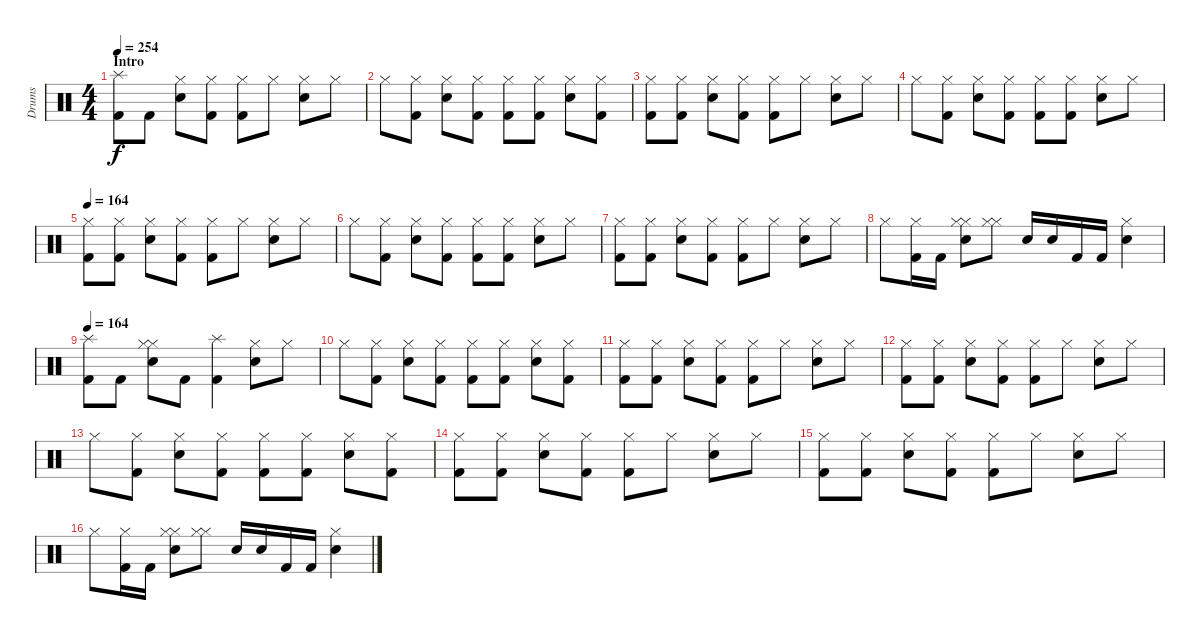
\track ("Drums" "Drums") {instrument percussion}
\staff {score}
\articulation defaults
\ts (4 4)
\section ("" "Intro")
\tempo 254
\tempo 164
\tempo 254
\clef neutral
\ks c
("Splash (hit)" "Kick (hit) 2").8{dy f} "Kick (hit) 2".8 ("Hi-Hat (closed)" "Electric Snare (hit)").8 ("Hi-Hat (closed)" "Kick (hit) 2").8 ("Hi-Hat (closed)" "Kick (hit) 2").8 "Hi-Hat (closed)".8 ("Hi-Hat (closed)" "Electric Snare (hit)").8 "Hi-Hat (closed)".8 |
"Hi-Hat (closed)".8 ("Hi-Hat (closed)" "Kick (hit) 2").8 ("Hi-Hat (closed)" "Electric Snare (hit)").8 ("Hi-Hat (closed)" "Kick (hit) 2").8 ("Hi-Hat (closed)" "Kick (hit) 2").8 ("Hi-Hat (closed)" "Kick (hit) 2").8 ("Hi-Hat (closed)" "Electric Snare (hit)").8 ("Hi-Hat (closed)" "Kick (hit) 2").8 |
("Hi-Hat (closed)" "Kick (hit) 2").8 ("Hi-Hat (closed)" "Kick (hit) 2").8 ("Hi-Hat (closed)" "Electric Snare (hit)").8 ("Hi-Hat (closed)" "Kick (hit) 2").8 ("Hi-Hat (closed)" "Kick (hit) 2").8 "Hi-Hat (closed)".8 ("Hi-Hat (closed)" "Electric Snare (hit)").8 "Hi-Hat (closed)".8 |
"Hi-Hat (closed)".8 ("Hi-Hat (closed)" "Kick (hit) 2").8 ("Hi-Hat (closed)" "Electric Snare (hit)").8 ("Hi-Hat (closed)" "Kick (hit) 2").8 ("Hi-Hat (closed)" "Kick (hit) 2").8 ("Hi-Hat (closed)" "Kick (hit) 2").8 ("Hi-Hat (closed)" "Electric Snare (hit)").8 "Hi-Hat (closed)".8 |
\tempo 164
("Hi-Hat (closed)" "Kick (hit) 2").8 ("Hi-Hat (closed)" "Kick (hit) 2").8 ("Hi-Hat (closed)" "Electric Snare (hit)").8 ("Hi-Hat (closed)" "Kick (hit) 2").8 ("Hi-Hat (closed)" "Kick (hit) 2").8 "Hi-Hat (closed)".8 ("Hi-Hat (closed)" "Electric Snare (hit)").8 "Hi-Hat (closed)".8 |
"Hi-Hat (closed)".8 ("Hi-Hat (closed)" "Kick (hit) 2").8 ("Hi-Hat (closed)" "Electric Snare (hit)").8 ("Hi-Hat (closed)" "Kick (hit) 2").8 ("Hi-Hat (closed)" "Kick (hit) 2").8 ("Hi-Hat (closed)" "Kick (hit) 2").8 ("Hi-Hat (closed)" "Electric Snare (hit)").8 "Hi-Hat (closed)".8 |
("Hi-Hat (closed)" "Kick (hit) 2").8 ("Hi-Hat (closed)" "Kick (hit) 2").8 ("Hi-Hat (closed)" "Electric Snare (hit)").8 ("Hi-Hat (closed)" "Kick (hit) 2").8 ("Hi-Hat (closed)" "Kick (hit) 2").8 "Hi-Hat (closed)".8 ("Hi-Hat (closed)" "Electric Snare (hit)").8 "Hi-Hat (closed)".8 |
"Hi-Hat (closed)".8 ("Hi-Hat (closed)" "Kick (hit) 2").16 "Kick (hit) 2".16 ("Hi-Hat (closed)" "Hi-Hat (closed)" "Electric Snare (hit)").8 ("Hi-Hat (closed)" "Hi-Hat (closed)").8 "Electric Snare (hit)".16 "Electric Snare (hit)".16 "Kick (hit) 2".16 "Kick (hit) 2".16 ("Hi-Hat (closed)" "Electric Snare (hit)").4 |
\tempo 164
("Splash (hit)" "Kick (hit) 2").8 "Kick (hit) 2".8 ("Hi-Hat (closed)" "Hi-Hat (closed)" "Electric Snare (hit)").8 "Kick (hit) 2".8 ("Splash (hit)" "Kick (hit) 2").4 ("Hi-Hat (closed)" "Electric Snare (hit)").8 "Hi-Hat (closed)".8 |
"Hi-Hat (closed)".8 ("Hi-Hat (closed)" "Kick (hit) 2").8 ("Hi-Hat (closed)" "Electric Snare (hit)").8 ("Hi-Hat (closed)" "Kick (hit) 2").8 ("Hi-Hat (closed)" "Kick (hit) 2").8 ("Hi-Hat (closed)" "Kick (hit) 2").8 ("Hi-Hat (closed)" "Electric Snare (hit)").8 ("Hi-Hat (closed)" "Kick (hit) 2").8 |
("Hi-Hat (closed)" "Kick (hit) 2").8 ("Hi-Hat (closed)" "Kick (hit) 2").8 ("Hi-Hat (closed)" "Electric Snare (hit)").8 ("Hi-Hat (closed)" "Kick (hit) 2").8 ("Hi-Hat (closed)" "Kick (hit) 2").8 "Hi-Hat (closed)".8 ("Hi-Hat (closed)" "Electric Snare (hit)").8 "Hi-Hat (closed)".8 |
("Hi-Hat (closed)" "Kick (hit) 2").8 ("Hi-Hat (closed)" "Kick (hit) 2").8 ("Hi-Hat (closed)" "Electric Snare (hit)").8 ("Hi-Hat (closed)" "Kick (hit) 2").8 ("Hi-Hat (closed)" "Kick (hit) 2").8 "Hi-Hat (closed)".8 ("Hi-Hat (closed)" "Electric Snare (hit)").8 "Hi-Hat (closed)".8 |
"Hi-Hat (closed)".8 ("Hi-Hat (closed)" "Kick (hit) 2").8 ("Hi-Hat (closed)" "Electric Snare (hit)").8 ("Hi-Hat (closed)" "Kick (hit) 2").8 ("Hi-Hat (closed)" "Kick (hit) 2").8 ("Hi-Hat (closed)" "Kick (hit) 2").8 ("Hi-Hat (closed)" "Electric Snare (hit)").8 ("Hi-Hat (closed)" "Kick (hit) 2").8 |
("Hi-Hat (closed)" "Kick (hit) 2").8 ("Hi-Hat (closed)" "Kick (hit) 2").8 ("Hi-Hat (closed)" "Electric Snare (hit)").8 ("Hi-Hat (closed)" "Kick (hit) 2").8 ("Hi-Hat (closed)" "Kick (hit) 2").8 "Hi-Hat (closed)".8 ("Hi-Hat (closed)" "Electric Snare (hit)").8 "Hi-Hat (closed)".8 |
("Hi-Hat (closed)" "Kick (hit) 2").8 ("Hi-Hat (closed)" "Kick (hit) 2").8 ("Hi-Hat (closed)" "Electric Snare (hit)").8 ("Hi-Hat (closed)" "Kick (hit) 2").8 ("Hi-Hat (closed)" "Kick (hit) 2").8 "Hi-Hat (closed)".8 ("Hi-Hat (closed)" "Electric Snare (hit)").8 "Hi-Hat (closed)".8 |
"Hi-Hat (closed)".8 ("Hi-Hat (closed)" "Kick (hit) 2").16 "Kick (hit) 2".16 ("Hi-Hat (closed)" "Hi-Hat (closed)" "Electric Snare (hit)").8 ("Hi-Hat (closed)" "Hi-Hat (closed)").8 "Electric Snare (hit)".16 "Electric Snare (hit)".16 "Kick (hit) 2".16 "Kick (hit) 2".16 ("Hi-Hat (closed)" "Electric Snare (hit)").4
